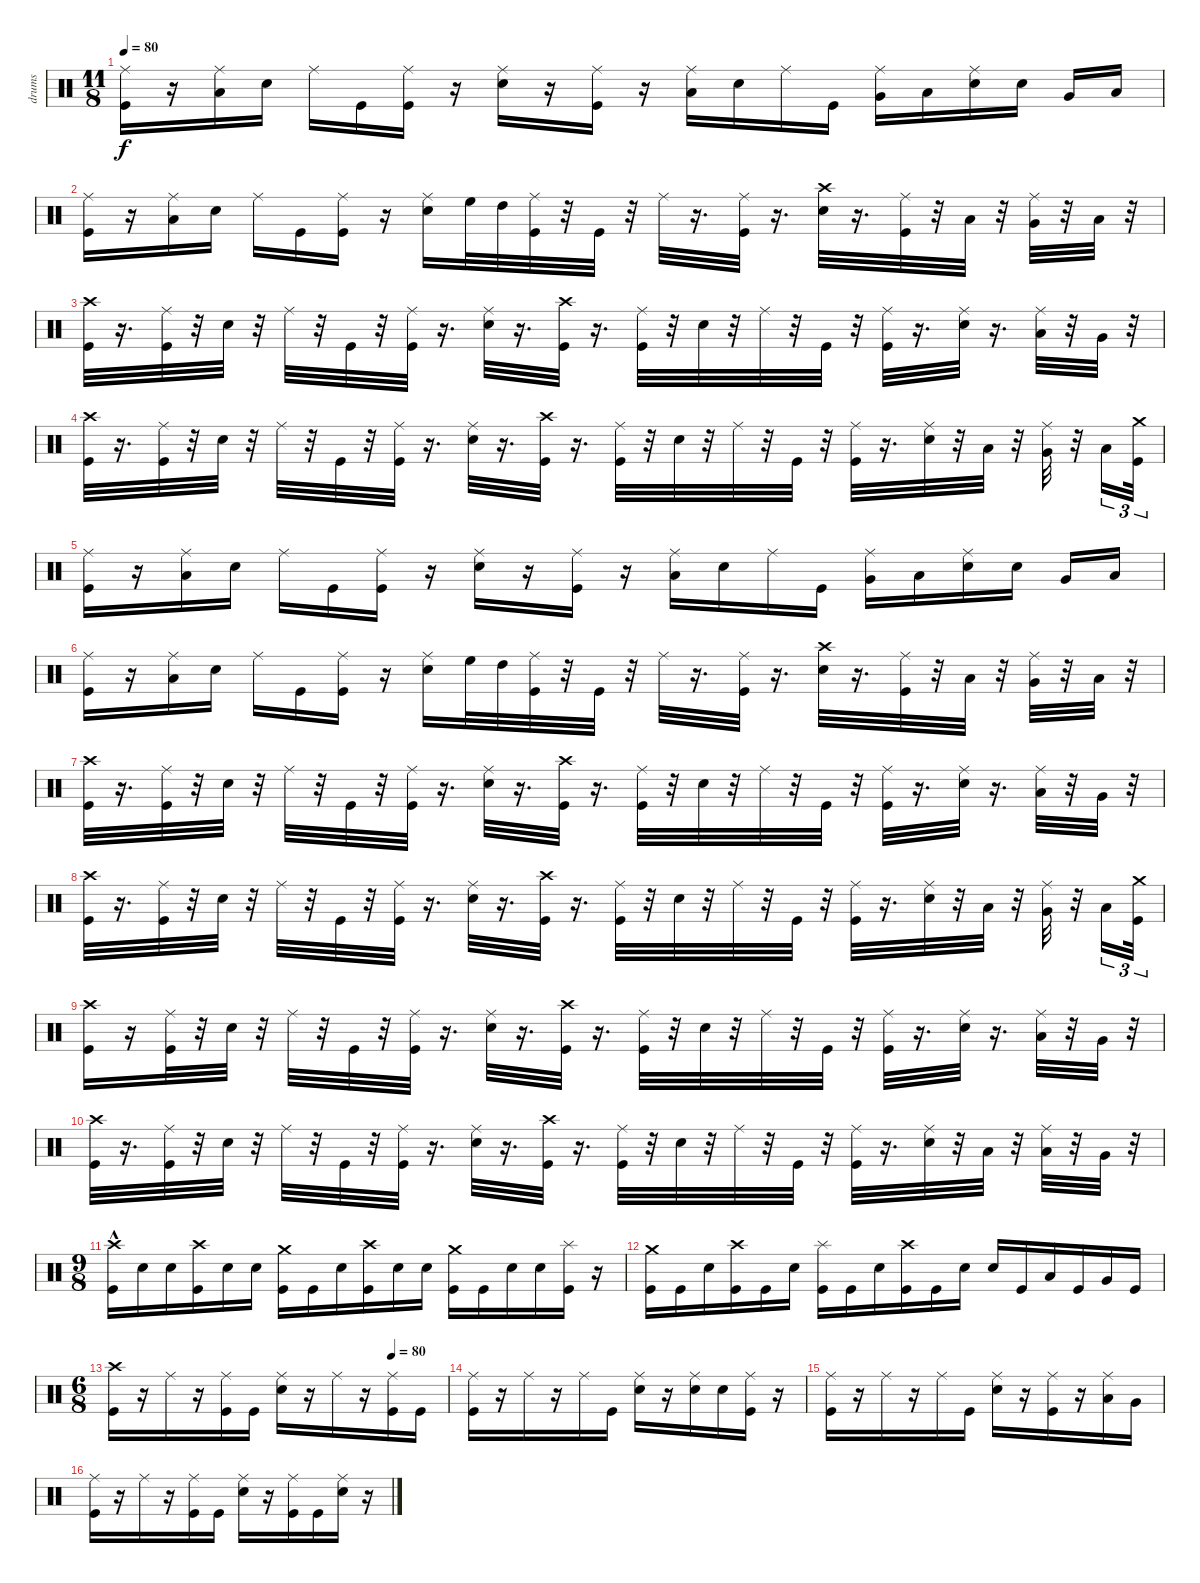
\track ("drums" "drums") {instrument percussion}
\staff {score}
\articulation defaults
\ts (11 8)
\tempo 80
\clef neutral
\ks c
("Ride (middle)" "Kick (hit)").16{dy f} r.16 ("Ride (middle)" "Low Tom (hit)").16 "Electric Snare (hit)".16 "Ride (middle)".16 "Kick (hit)".16 ("Ride (middle)" "Kick (hit)").16 r.16 ("Ride (middle)" "Electric Snare (hit)").16 r.16 ("Ride (middle)" "Kick (hit)").16 r.16 ("Ride (middle)" "Low Tom (hit)").16 "Electric Snare (hit)".16 "Ride (middle)".16 "Kick (hit)".16 ("Ride (middle)" "Very Low Tom (hit)").16 "Low Floor Tom (hit)".16 ("Electric Snare (hit)" "Ride (middle)").16 "Electric Snare (hit)".16 "Very Low Tom (hit)".16 "Low Floor Tom (hit)".16 |
("Ride (middle)" "Kick (hit)").16 r.16 ("Ride (middle)" "Low Tom (hit)").16 "Electric Snare (hit)".16 "Ride (middle)".16 "Kick (hit)".16 ("Ride (middle)" "Kick (hit)").16 r.16 ("Ride (middle)" "Electric Snare (hit)").16 "High Floor Tom (hit)".32 "High Tom (hit)".32 ("Ride (middle)" "Kick (hit)").32 r.32 "Kick (hit)".32 r.32 "Ride (middle)".32 r.16{d} ("Kick (hit)" "Ride (middle)").32 r.16{d} ("Electric Snare (hit)" "Crash high (hit)").32 r.16{d} ("Kick (hit)" "Ride (middle)").32 r.32 "Low Tom (hit)".32 r.32 ("Very Low Tom (hit)" "Ride (middle)").32 r.32 "Low Floor Tom (hit)".32 r.32 |
("Crash high (hit)" "Kick (hit)").32 r.16{d} ("Kick (hit)" "Ride (middle)").32 r.32 "Electric Snare (hit)".32 r.32 "Ride (middle)".32 r.32 "Kick (hit)".32 r.32 ("Kick (hit)" "Ride (middle)").32 r.16{d} ("Electric Snare (hit)" "Ride (middle)").32 r.16{d} ("Crash high (hit)" "Kick (hit)").32 r.16{d} ("Kick (hit)" "Ride (middle)").32 r.32 "Electric Snare (hit)".32 r.32 "Ride (middle)".32 r.32 "Kick (hit)".32 r.32 ("Kick (hit)" "Ride (middle)").32 r.16{d} ("Electric Snare (hit)" "Ride (middle)").32 r.16{d} ("Ride (middle)" "Low Tom (hit)").32 r.32 "Very Low Tom (hit)".32 r.32 |
("Crash high (hit)" "Kick (hit)").32 r.16{d} ("Kick (hit)" "Ride (middle)").32 r.32 "Electric Snare (hit)".32 r.32 "Ride (middle)".32 r.32 "Kick (hit)".32 r.32 ("Kick (hit)" "Ride (middle)").32 r.16{d} ("Electric Snare (hit)" "Ride (middle)").32 r.16{d} ("Crash high (hit)" "Kick (hit)").32 r.16{d} ("Kick (hit)" "Ride (middle)").32 r.32 "Electric Snare (hit)".32 r.32 "Ride (middle)".32 r.32 "Kick (hit)".32 r.32 ("Kick (hit)" "Ride (middle)").32 r.16{d} ("Electric Snare (hit)" "Ride (middle)").32 r.32 "Low Tom (hit)".32 r.32 ("Ride (middle)" "Very Low Tom (hit)").32 r.32 "Low Floor Tom (hit)".16{tu (3 2)} ("Crash medium (hit)" "Kick (hit)").32{tu (3 2)} |
("Ride (middle)" "Kick (hit)").16 r.16 ("Ride (middle)" "Low Tom (hit)").16 "Electric Snare (hit)".16 "Ride (middle)".16 "Kick (hit)".16 ("Ride (middle)" "Kick (hit)").16 r.16 ("Ride (middle)" "Electric Snare (hit)").16 r.16 ("Ride (middle)" "Kick (hit)").16 r.16 ("Ride (middle)" "Low Tom (hit)").16 "Electric Snare (hit)".16 "Ride (middle)".16 "Kick (hit)".16 ("Ride (middle)" "Very Low Tom (hit)").16 "Low Floor Tom (hit)".16 ("Electric Snare (hit)" "Ride (middle)").16 "Electric Snare (hit)".16 "Very Low Tom (hit)".16 "Low Floor Tom (hit)".16 |
("Ride (middle)" "Kick (hit)").16 r.16 ("Ride (middle)" "Low Tom (hit)").16 "Electric Snare (hit)".16 "Ride (middle)".16 "Kick (hit)".16 ("Ride (middle)" "Kick (hit)").16 r.16 ("Ride (middle)" "Electric Snare (hit)").16 "High Floor Tom (hit)".32 "High Tom (hit)".32 ("Ride (middle)" "Kick (hit)").32 r.32 "Kick (hit)".32 r.32 "Ride (middle)".32 r.16{d} ("Kick (hit)" "Ride (middle)").32 r.16{d} ("Electric Snare (hit)" "Crash high (hit)").32 r.16{d} ("Kick (hit)" "Ride (middle)").32 r.32 "Low Tom (hit)".32 r.32 ("Very Low Tom (hit)" "Ride (middle)").32 r.32 "Low Floor Tom (hit)".32 r.32 |
("Crash high (hit)" "Kick (hit)").32 r.16{d} ("Kick (hit)" "Ride (middle)").32 r.32 "Electric Snare (hit)".32 r.32 "Ride (middle)".32 r.32 "Kick (hit)".32 r.32 ("Kick (hit)" "Ride (middle)").32 r.16{d} ("Electric Snare (hit)" "Ride (middle)").32 r.16{d} ("Crash high (hit)" "Kick (hit)").32 r.16{d} ("Kick (hit)" "Ride (middle)").32 r.32 "Electric Snare (hit)".32 r.32 "Ride (middle)".32 r.32 "Kick (hit)".32 r.32 ("Kick (hit)" "Ride (middle)").32 r.16{d} ("Ride (middle)" "Electric Snare (hit)").32 r.16{d} ("Ride (middle)" "Low Tom (hit)").32 r.32 "Very Low Tom (hit)".32 r.32 |
("Crash high (hit)" "Kick (hit)").32 r.16{d} ("Kick (hit)" "Ride (middle)").32 r.32 "Electric Snare (hit)".32 r.32 "Ride (middle)".32 r.32 "Kick (hit)".32 r.32 ("Kick (hit)" "Ride (middle)").32 r.16{d} ("Electric Snare (hit)" "Ride (middle)").32 r.16{d} ("Crash high (hit)" "Kick (hit)").32 r.16{d} ("Kick (hit)" "Ride (middle)").32 r.32 "Electric Snare (hit)".32 r.32 "Ride (middle)".32 r.32 "Kick (hit)".32 r.32 ("Kick (hit)" "Ride (middle)").32 r.16{d} ("Electric Snare (hit)" "Ride (middle)").32 r.32 "Low Tom (hit)".32 r.32 ("Ride (middle)" "Very Low Tom (hit)").32 r.32 "Low Floor Tom (hit)".16{tu (3 2)} ("Crash medium (hit)" "Kick (hit)").32{tu (3 2)} |
("Crash high (hit)" "Kick (hit)").16 r.16 ("Kick (hit)" "Ride (middle)").32 r.32 "Electric Snare (hit)".32 r.32 "Ride (middle)".32 r.32 "Kick (hit)".32 r.32 ("Kick (hit)" "Ride (middle)").32 r.16{d} ("Electric Snare (hit)" "Ride (middle)").32 r.16{d} ("Crash high (hit)" "Kick (hit)").32 r.16{d} ("Kick (hit)" "Ride (middle)").32 r.32 "Electric Snare (hit)".32 r.32 "Ride (middle)".32 r.32 "Kick (hit)".32 r.32 ("Kick (hit)" "Ride (middle)").32 r.16{d} ("Electric Snare (hit)" "Ride (middle)").32 r.16{d} ("Low Tom (hit)" "Ride (middle)").32 r.32 "Very Low Tom (hit)".32 r.32 |
("Crash high (hit)" "Kick (hit)").32 r.16{d} ("Kick (hit)" "Ride (middle)").32 r.32 "Electric Snare (hit)".32 r.32 "Ride (middle)".32 r.32 "Kick (hit)".32 r.32 ("Kick (hit)" "Ride (middle)").32 r.16{d} ("Electric Snare (hit)" "Ride (middle)").32 r.16{d} ("Crash high (hit)" "Kick (hit)").32 r.16{d} ("Ride (middle)" "Kick (hit)").32 r.32 "Electric Snare (hit)".32 r.32 "Ride (middle)".32 r.32 "Kick (hit)".32 r.32 ("Kick (hit)" "Ride (middle)").32 r.16{d} ("Electric Snare (hit)" "Ride (middle)").32 r.32 "Low Tom (hit)".32 r.32 ("Ride (middle)" "Low Tom (hit)").32 r.32 "Very Low Tom (hit)".32 r.32 |
\ts (9 8)
("Crash high (hit)"{hac} "Kick (hit)"{hac}).16 "Electric Snare (hit)".16 "Electric Snare (hit)".16 ("Crash high (hit)" "Kick (hit)").16 "Electric Snare (hit)".16 "Electric Snare (hit)".16 ("Crash medium (hit)" "Kick (hit)").16 "Kick (hit)".16 "Electric Snare (hit)".16 ("Crash high (hit)" "Kick (hit)").16 "Electric Snare (hit)".16 "Electric Snare (hit)".16 ("Crash medium (hit)" "Kick (hit)").16 "Kick (hit)".16 "Electric Snare (hit)".16 "Electric Snare (hit)".16 ("Splash (hit)" "Kick (hit)").16 r.16 |
("Crash medium (hit)" "Kick (hit)").16 "Kick (hit)".16 "Electric Snare (hit)".16 ("Crash high (hit)" "Kick (hit)").16 "Kick (hit)".16 "Electric Snare (hit)".16 ("Splash (hit)" "Kick (hit)").16 "Kick (hit)".16 "Electric Snare (hit)".16 ("Crash high (hit)" "Kick (hit)").16 "Kick (hit)".16 "Electric Snare (hit)".16 "Electric Snare (hit)".16 "Kick (hit)".16 "Low Tom (hit)".16 "Kick (hit)".16 "Very Low Tom (hit)".16 "Kick (hit)".16 |
\ts (6 8)
\tempo (80 0.8333333333333334)
("Kick (hit)" "Crash high (hit)").16 r.16 "Ride (middle)".16 r.16 ("Kick (hit)" "Ride (middle)").16 "Kick (hit)".16 ("Electric Snare (hit)" "Ride (middle)").16 r.16 "Ride (middle)".16 r.16 ("Kick (hit)" "Ride (middle)").16 "Kick (hit)".16 |
("Kick (hit)" "Ride (middle)").16 r.16 "Ride (middle)".16 r.16 "Ride (middle)".16 "Kick (hit)".16 ("Ride (middle)" "Electric Snare (hit)").16 r.16 ("Ride (middle)" "Electric Snare (hit)").16 "Electric Snare (hit)".16 ("Kick (hit)" "Ride (middle)").16 r.16 |
("Ride (middle)" "Kick (hit)").16 r.16 "Ride (middle)".16 r.16 "Ride (middle)".16 "Kick (hit)".16 ("Electric Snare (hit)" "Ride (middle)").16 r.16 ("Ride (middle)" "Kick (hit)").16 r.16 ("Low Tom (hit)" "Ride (middle)").16 "Very Low Tom (hit)".16 |
("Ride (middle)" "Kick (hit)").16 r.16 "Ride (middle)".16 r.16 ("Kick (hit)" "Ride (middle)").16 "Kick (hit)".16 ("Ride (middle)" "Electric Snare (hit)").16 r.16 ("Ride (middle)" "Kick (hit)").16 "Kick (hit)".16 ("Ride (middle)" "Electric Snare (hit)").16 r.16
